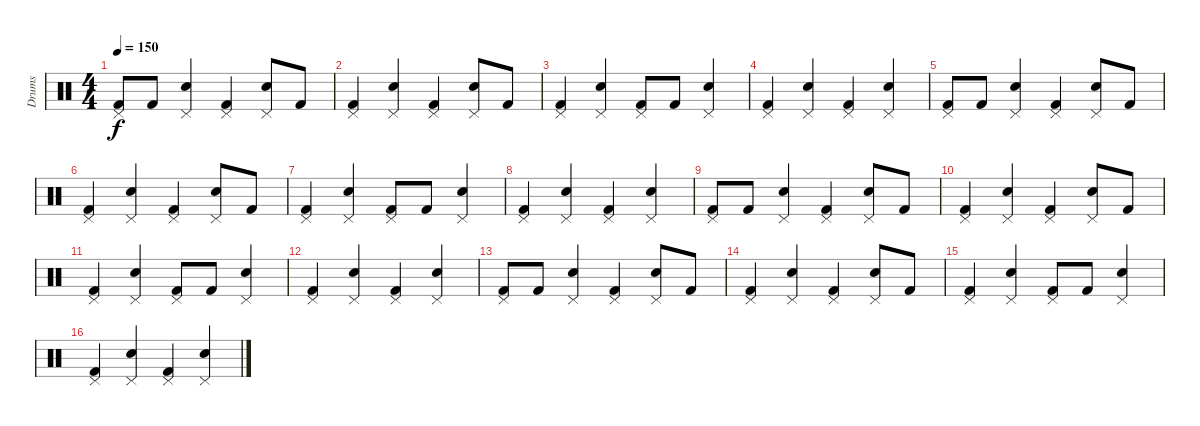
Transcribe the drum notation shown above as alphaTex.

\track ("Drums" "Drums") {instrument percussion}
\staff {score}
\articulation defaults
\ts (4 4)
\tempo 150
\clef neutral
\ks c
("Pedal Hi-Hat (hit)" "Kick (hit) 2").8{dy f} "Kick (hit) 2".8 ("Pedal Hi-Hat (hit)" "Electric Snare (hit)").4 ("Pedal Hi-Hat (hit)" "Kick (hit) 2").4 ("Pedal Hi-Hat (hit)" "Electric Snare (hit)").8 "Kick (hit) 2".8 |
("Pedal Hi-Hat (hit)" "Kick (hit) 2").4 ("Pedal Hi-Hat (hit)" "Electric Snare (hit)").4 ("Pedal Hi-Hat (hit)" "Kick (hit) 2").4 ("Pedal Hi-Hat (hit)" "Electric Snare (hit)").8 "Kick (hit) 2".8 |
("Pedal Hi-Hat (hit)" "Kick (hit) 2").4 ("Pedal Hi-Hat (hit)" "Electric Snare (hit)").4 ("Pedal Hi-Hat (hit)" "Kick (hit) 2").8 "Kick (hit) 2".8 ("Pedal Hi-Hat (hit)" "Electric Snare (hit)").4 |
("Pedal Hi-Hat (hit)" "Kick (hit) 2").4 ("Pedal Hi-Hat (hit)" "Electric Snare (hit)").4 ("Pedal Hi-Hat (hit)" "Kick (hit) 2").4 ("Pedal Hi-Hat (hit)" "Electric Snare (hit)").4 |
("Pedal Hi-Hat (hit)" "Kick (hit) 2").8 "Kick (hit) 2".8 ("Pedal Hi-Hat (hit)" "Electric Snare (hit)").4 ("Pedal Hi-Hat (hit)" "Kick (hit) 2").4 ("Pedal Hi-Hat (hit)" "Electric Snare (hit)").8 "Kick (hit) 2".8 |
("Pedal Hi-Hat (hit)" "Kick (hit) 2").4 ("Pedal Hi-Hat (hit)" "Electric Snare (hit)").4 ("Pedal Hi-Hat (hit)" "Kick (hit) 2").4 ("Pedal Hi-Hat (hit)" "Electric Snare (hit)").8 "Kick (hit) 2".8 |
("Pedal Hi-Hat (hit)" "Kick (hit) 2").4 ("Pedal Hi-Hat (hit)" "Electric Snare (hit)").4 ("Pedal Hi-Hat (hit)" "Kick (hit) 2").8 "Kick (hit) 2".8 ("Pedal Hi-Hat (hit)" "Electric Snare (hit)").4 |
("Pedal Hi-Hat (hit)" "Kick (hit) 2").4 ("Pedal Hi-Hat (hit)" "Electric Snare (hit)").4 ("Pedal Hi-Hat (hit)" "Kick (hit) 2").4 ("Pedal Hi-Hat (hit)" "Electric Snare (hit)").4 |
("Pedal Hi-Hat (hit)" "Kick (hit) 2").8 "Kick (hit) 2".8 ("Pedal Hi-Hat (hit)" "Electric Snare (hit)").4 ("Pedal Hi-Hat (hit)" "Kick (hit) 2").4 ("Pedal Hi-Hat (hit)" "Electric Snare (hit)").8 "Kick (hit) 2".8 |
("Pedal Hi-Hat (hit)" "Kick (hit) 2").4 ("Pedal Hi-Hat (hit)" "Electric Snare (hit)").4 ("Pedal Hi-Hat (hit)" "Kick (hit) 2").4 ("Pedal Hi-Hat (hit)" "Electric Snare (hit)").8 "Kick (hit) 2".8 |
("Pedal Hi-Hat (hit)" "Kick (hit) 2").4 ("Pedal Hi-Hat (hit)" "Electric Snare (hit)").4 ("Pedal Hi-Hat (hit)" "Kick (hit) 2").8 "Kick (hit) 2".8 ("Pedal Hi-Hat (hit)" "Electric Snare (hit)").4 |
("Pedal Hi-Hat (hit)" "Kick (hit) 2").4 ("Pedal Hi-Hat (hit)" "Electric Snare (hit)").4 ("Pedal Hi-Hat (hit)" "Kick (hit) 2").4 ("Pedal Hi-Hat (hit)" "Electric Snare (hit)").4 |
("Pedal Hi-Hat (hit)" "Kick (hit) 2").8 "Kick (hit) 2".8 ("Pedal Hi-Hat (hit)" "Electric Snare (hit)").4 ("Pedal Hi-Hat (hit)" "Kick (hit) 2").4 ("Pedal Hi-Hat (hit)" "Electric Snare (hit)").8 "Kick (hit) 2".8 |
("Pedal Hi-Hat (hit)" "Kick (hit) 2").4 ("Pedal Hi-Hat (hit)" "Electric Snare (hit)").4 ("Pedal Hi-Hat (hit)" "Kick (hit) 2").4 ("Pedal Hi-Hat (hit)" "Electric Snare (hit)").8 "Kick (hit) 2".8 |
("Pedal Hi-Hat (hit)" "Kick (hit) 2").4 ("Pedal Hi-Hat (hit)" "Electric Snare (hit)").4 ("Pedal Hi-Hat (hit)" "Kick (hit) 2").8 "Kick (hit) 2".8 ("Pedal Hi-Hat (hit)" "Electric Snare (hit)").4 |
("Pedal Hi-Hat (hit)" "Kick (hit) 2").4 ("Pedal Hi-Hat (hit)" "Electric Snare (hit)").4 ("Pedal Hi-Hat (hit)" "Kick (hit) 2").4 ("Pedal Hi-Hat (hit)" "Electric Snare (hit)").4
